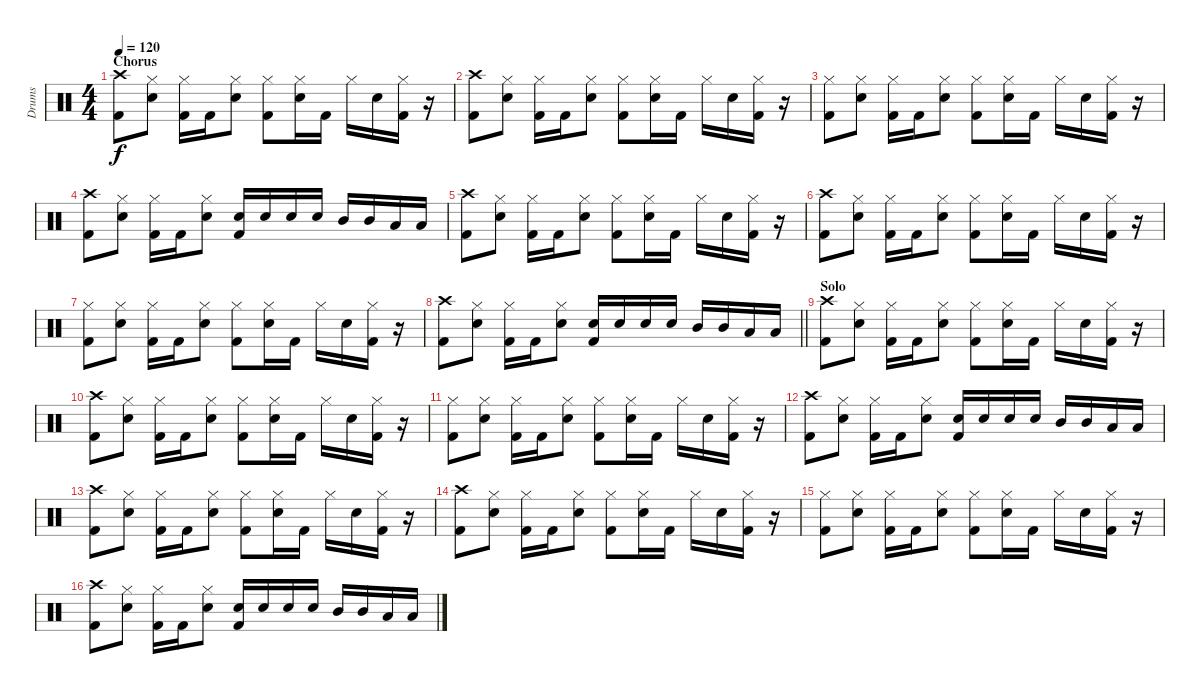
\track ("Drums" "Drums") {instrument percussion}
\staff {score}
\articulation defaults
\ts (4 4)
\section ("" "Chorus")
\tempo 120
\clef neutral
\ks c
("Crash high (hit)" "Kick (hit) 2").8{dy f} ("Hi-Hat (closed)" "Snare (hit) 2").8 ("Hi-Hat (closed)" "Kick (hit) 2").16 "Kick (hit) 2".16 ("Hi-Hat (closed)" "Snare (hit) 2").8 ("Hi-Hat (closed)" "Kick (hit) 2").8 ("Hi-Hat (closed)" "Snare (hit) 2").16 "Kick (hit) 2".16 "Hi-Hat (closed)".16 "Snare (hit) 2".16 ("Hi-Hat (closed)" "Kick (hit) 2").16 r.16 |
("Crash high (hit)" "Kick (hit) 2").8 ("Hi-Hat (closed)" "Snare (hit) 2").8 ("Hi-Hat (closed)" "Kick (hit) 2").16 "Kick (hit) 2".16 ("Hi-Hat (closed)" "Snare (hit) 2").8 ("Hi-Hat (closed)" "Kick (hit) 2").8 ("Hi-Hat (closed)" "Snare (hit) 2").16 "Kick (hit) 2".16 "Hi-Hat (closed)".16 "Snare (hit) 2".16 ("Hi-Hat (closed)" "Kick (hit) 2").16 r.16 |
("Hi-Hat (closed)" "Kick (hit) 2").8 ("Hi-Hat (closed)" "Snare (hit) 2").8 ("Hi-Hat (closed)" "Kick (hit) 2").16 "Kick (hit) 2".16 ("Hi-Hat (closed)" "Snare (hit) 2").8 ("Hi-Hat (closed)" "Kick (hit) 2").8 ("Hi-Hat (closed)" "Snare (hit) 2").16 "Kick (hit) 2".16 "Hi-Hat (closed)".16 "Snare (hit) 2".16 ("Hi-Hat (closed)" "Kick (hit) 2").16 r.16 |
("Crash high (hit)" "Kick (hit) 2").8 ("Hi-Hat (closed)" "Snare (hit) 2").8 ("Hi-Hat (closed)" "Kick (hit) 2").16 "Kick (hit) 2".16 ("Hi-Hat (closed)" "Snare (hit) 2").8 ("Snare (hit) 2" "Kick (hit) 2").16 "Snare (hit) 2".16 "Snare (hit) 2".16 "Snare (hit) 2".16 "Mid Tom (hit)".16 "Mid Tom (hit)".16 "Low Tom (hit)".16 "Low Tom (hit)".16 |
("Crash high (hit)" "Kick (hit) 2").8 ("Hi-Hat (closed)" "Snare (hit) 2").8 ("Hi-Hat (closed)" "Kick (hit) 2").16 "Kick (hit) 2".16 ("Hi-Hat (closed)" "Snare (hit) 2").8 ("Hi-Hat (closed)" "Kick (hit) 2").8 ("Hi-Hat (closed)" "Snare (hit) 2").16 "Kick (hit) 2".16 "Hi-Hat (closed)".16 "Snare (hit) 2".16 ("Hi-Hat (closed)" "Kick (hit) 2").16 r.16 |
("Crash high (hit)" "Kick (hit) 2").8 ("Hi-Hat (closed)" "Snare (hit) 2").8 ("Hi-Hat (closed)" "Kick (hit) 2").16 "Kick (hit) 2".16 ("Hi-Hat (closed)" "Snare (hit) 2").8 ("Hi-Hat (closed)" "Kick (hit) 2").8 ("Hi-Hat (closed)" "Snare (hit) 2").16 "Kick (hit) 2".16 "Hi-Hat (closed)".16 "Snare (hit) 2".16 ("Hi-Hat (closed)" "Kick (hit) 2").16 r.16 |
("Hi-Hat (closed)" "Kick (hit) 2").8 ("Hi-Hat (closed)" "Snare (hit) 2").8 ("Hi-Hat (closed)" "Kick (hit) 2").16 "Kick (hit) 2".16 ("Hi-Hat (closed)" "Snare (hit) 2").8 ("Hi-Hat (closed)" "Kick (hit) 2").8 ("Hi-Hat (closed)" "Snare (hit) 2").16 "Kick (hit) 2".16 "Hi-Hat (closed)".16 "Snare (hit) 2".16 ("Hi-Hat (closed)" "Kick (hit) 2").16 r.16 |
\barLineRight lightlight
("Crash high (hit)" "Kick (hit) 2").8 ("Hi-Hat (closed)" "Snare (hit) 2").8 ("Hi-Hat (closed)" "Kick (hit) 2").16 "Kick (hit) 2".16 ("Hi-Hat (closed)" "Snare (hit) 2").8 ("Snare (hit) 2" "Kick (hit) 2").16 "Snare (hit) 2".16 "Snare (hit) 2".16 "Snare (hit) 2".16 "Mid Tom (hit)".16 "Mid Tom (hit)".16 "Low Tom (hit)".16 "Low Tom (hit)".16 |
\section ("" "Solo")
("Crash high (hit)" "Kick (hit) 2").8 ("Hi-Hat (closed)" "Snare (hit) 2").8 ("Hi-Hat (closed)" "Kick (hit) 2").16 "Kick (hit) 2".16 ("Hi-Hat (closed)" "Snare (hit) 2").8 ("Hi-Hat (closed)" "Kick (hit) 2").8 ("Hi-Hat (closed)" "Snare (hit) 2").16 "Kick (hit) 2".16 "Hi-Hat (closed)".16 "Snare (hit) 2".16 ("Hi-Hat (closed)" "Kick (hit) 2").16 r.16 |
("Crash high (hit)" "Kick (hit) 2").8 ("Hi-Hat (closed)" "Snare (hit) 2").8 ("Hi-Hat (closed)" "Kick (hit) 2").16 "Kick (hit) 2".16 ("Hi-Hat (closed)" "Snare (hit) 2").8 ("Hi-Hat (closed)" "Kick (hit) 2").8 ("Hi-Hat (closed)" "Snare (hit) 2").16 "Kick (hit) 2".16 "Hi-Hat (closed)".16 "Snare (hit) 2".16 ("Hi-Hat (closed)" "Kick (hit) 2").16 r.16 |
("Hi-Hat (closed)" "Kick (hit) 2").8 ("Hi-Hat (closed)" "Snare (hit) 2").8 ("Hi-Hat (closed)" "Kick (hit) 2").16 "Kick (hit) 2".16 ("Hi-Hat (closed)" "Snare (hit) 2").8 ("Hi-Hat (closed)" "Kick (hit) 2").8 ("Hi-Hat (closed)" "Snare (hit) 2").16 "Kick (hit) 2".16 "Hi-Hat (closed)".16 "Snare (hit) 2".16 ("Hi-Hat (closed)" "Kick (hit) 2").16 r.16 |
("Crash high (hit)" "Kick (hit) 2").8 ("Hi-Hat (closed)" "Snare (hit) 2").8 ("Hi-Hat (closed)" "Kick (hit) 2").16 "Kick (hit) 2".16 ("Hi-Hat (closed)" "Snare (hit) 2").8 ("Snare (hit) 2" "Kick (hit) 2").16 "Snare (hit) 2".16 "Snare (hit) 2".16 "Snare (hit) 2".16 "Mid Tom (hit)".16 "Mid Tom (hit)".16 "Low Tom (hit)".16 "Low Tom (hit)".16 |
("Crash high (hit)" "Kick (hit) 2").8 ("Hi-Hat (closed)" "Snare (hit) 2").8 ("Hi-Hat (closed)" "Kick (hit) 2").16 "Kick (hit) 2".16 ("Hi-Hat (closed)" "Snare (hit) 2").8 ("Hi-Hat (closed)" "Kick (hit) 2").8 ("Hi-Hat (closed)" "Snare (hit) 2").16 "Kick (hit) 2".16 "Hi-Hat (closed)".16 "Snare (hit) 2".16 ("Hi-Hat (closed)" "Kick (hit) 2").16 r.16 |
("Crash high (hit)" "Kick (hit) 2").8 ("Hi-Hat (closed)" "Snare (hit) 2").8 ("Hi-Hat (closed)" "Kick (hit) 2").16 "Kick (hit) 2".16 ("Hi-Hat (closed)" "Snare (hit) 2").8 ("Hi-Hat (closed)" "Kick (hit) 2").8 ("Hi-Hat (closed)" "Snare (hit) 2").16 "Kick (hit) 2".16 "Hi-Hat (closed)".16 "Snare (hit) 2".16 ("Hi-Hat (closed)" "Kick (hit) 2").16 r.16 |
("Hi-Hat (closed)" "Kick (hit) 2").8 ("Hi-Hat (closed)" "Snare (hit) 2").8 ("Hi-Hat (closed)" "Kick (hit) 2").16 "Kick (hit) 2".16 ("Hi-Hat (closed)" "Snare (hit) 2").8 ("Hi-Hat (closed)" "Kick (hit) 2").8 ("Hi-Hat (closed)" "Snare (hit) 2").16 "Kick (hit) 2".16 "Hi-Hat (closed)".16 "Snare (hit) 2".16 ("Hi-Hat (closed)" "Kick (hit) 2").16 r.16 |
("Crash high (hit)" "Kick (hit) 2").8 ("Hi-Hat (closed)" "Snare (hit) 2").8 ("Hi-Hat (closed)" "Kick (hit) 2").16 "Kick (hit) 2".16 ("Hi-Hat (closed)" "Snare (hit) 2").8 ("Snare (hit) 2" "Kick (hit) 2").16 "Snare (hit) 2".16 "Snare (hit) 2".16 "Snare (hit) 2".16 "Mid Tom (hit)".16 "Mid Tom (hit)".16 "Low Tom (hit)".16 "Low Tom (hit)".16
